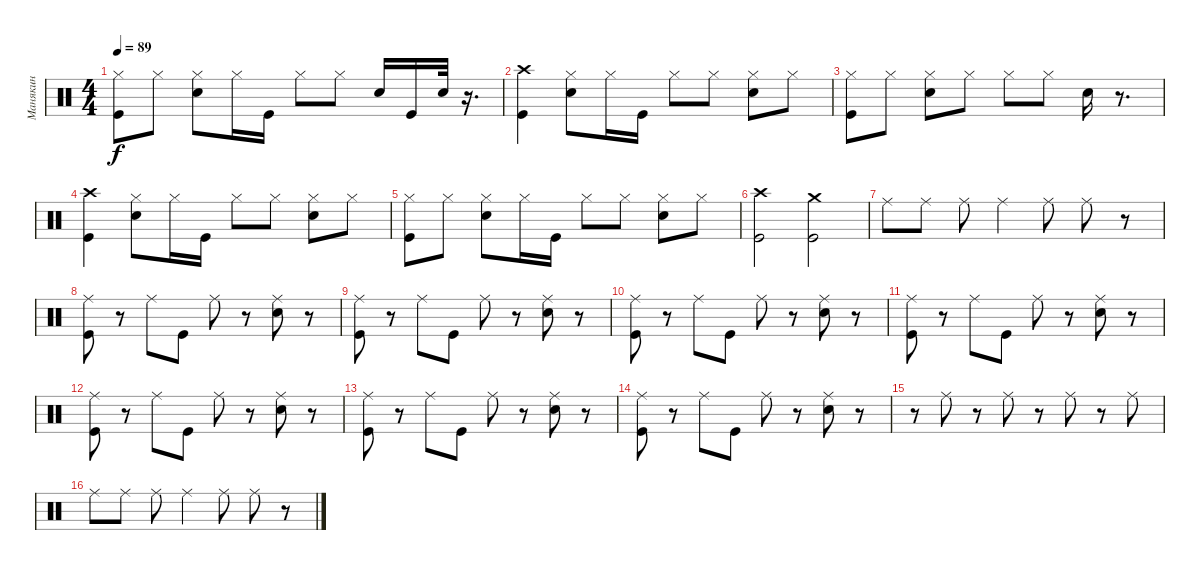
\track ("Манякин" "Манякин") {instrument percussion}
\staff {score}
\articulation defaults
\ts (4 4)
\tempo 89
\clef neutral
\ks c
("Hi-Hat (closed)" "Kick (hit)").8{dy f} "Hi-Hat (closed)".8 ("Electric Snare (hit)" "Hi-Hat (closed)").8 "Hi-Hat (closed)".16 "Kick (hit)".16 "Hi-Hat (closed)".8 "Hi-Hat (closed)".8 "Electric Snare (hit)".16 "Kick (hit)".16 "Electric Snare (hit)".32 r.16{d} |
("Kick (hit)" "Crash high (hit)").4 ("Electric Snare (hit)" "Hi-Hat (closed)").8 "Hi-Hat (closed)".16 "Kick (hit)".16 "Hi-Hat (closed)".8 "Hi-Hat (closed)".8 ("Electric Snare (hit)" "Hi-Hat (closed)").8 "Hi-Hat (closed)".8 |
("Hi-Hat (closed)" "Kick (hit)").8 "Hi-Hat (closed)".8 ("Hi-Hat (closed)" "Electric Snare (hit)").8 "Hi-Hat (closed)".8 "Hi-Hat (closed)".8 "Hi-Hat (closed)".8 "Electric Snare (hit)".16 r.8{d} |
("Kick (hit)" "Crash high (hit)").4 ("Hi-Hat (closed)" "Electric Snare (hit)").8 "Hi-Hat (closed)".16 "Kick (hit)".16 "Hi-Hat (closed)".8 "Hi-Hat (closed)".8 ("Hi-Hat (closed)" "Electric Snare (hit)").8 "Hi-Hat (closed)".8 |
("Hi-Hat (closed)" "Kick (hit)").8 "Hi-Hat (closed)".8 ("Hi-Hat (closed)" "Electric Snare (hit)").8 "Hi-Hat (closed)".16 "Kick (hit)".16 "Hi-Hat (closed)".8 "Hi-Hat (closed)".8 ("Hi-Hat (closed)" "Electric Snare (hit)").8 "Hi-Hat (closed)".8 |
("Kick (hit)" "Crash high (hit)").2 ("Kick (hit)" "Crash medium (hit)").2 |
"Ride (middle)".8 "Ride (middle)".8 "Ride (middle)".8 "Ride (middle)".4 "Ride (middle)".8 "Ride (middle)".8 r.8 |
("Ride (middle)" "Kick (hit)").8 r.8 "Ride (middle)".8 "Kick (hit)".8 "Ride (middle)".8 r.8 ("Ride (middle)" "Electric Snare (hit)").8 r.8 |
("Ride (middle)" "Kick (hit)").8 r.8 "Ride (middle)".8 "Kick (hit)".8 "Ride (middle)".8 r.8 ("Electric Snare (hit)" "Ride (middle)").8 r.8 |
("Ride (middle)" "Kick (hit)").8 r.8 "Ride (middle)".8 "Kick (hit)".8 "Ride (middle)".8 r.8 ("Ride (middle)" "Electric Snare (hit)").8 r.8 |
("Kick (hit)" "Ride (middle)").8 r.8 "Ride (middle)".8 "Kick (hit)".8 "Ride (middle)".8 r.8 ("Ride (middle)" "Electric Snare (hit)").8 r.8 |
("Ride (middle)" "Kick (hit)").8 r.8 "Ride (middle)".8 "Kick (hit)".8 "Ride (middle)".8 r.8 ("Electric Snare (hit)" "Ride (middle)").8 r.8 |
("Ride (middle)" "Kick (hit)").8 r.8 "Ride (middle)".8 "Kick (hit)".8 "Ride (middle)".8 r.8 ("Electric Snare (hit)" "Ride (middle)").8 r.8 |
("Kick (hit)" "Ride (middle)").8 r.8 "Ride (middle)".8 "Kick (hit)".8 "Ride (middle)".8 r.8 ("Electric Snare (hit)" "Ride (middle)").8 r.8 |
r.8 "Ride (middle)".8 r.8 "Ride (middle)".8 r.8 "Ride (middle)".8 r.8 "Ride (middle)".8 |
"Ride (middle)".8 "Ride (middle)".8 "Ride (middle)".8 "Ride (middle)".4 "Ride (middle)".8 "Ride (middle)".8 r.8
